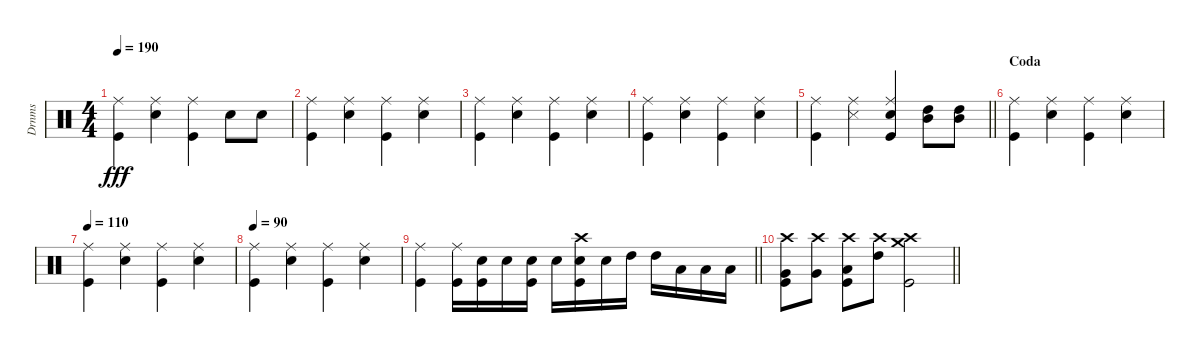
\track ("Drnms" "Drnms") {instrument percussion}
\staff {score}
\articulation defaults
\ts (4 4)
\tempo 190
\clef neutral
\ks c
("Kick (hit)" "Ride (middle)").4{dy fff} ("Snare (hit) 2" "Ride (middle)").4 ("Kick (hit)" "Ride (middle)").4 "Snare (hit) 2".8 "Snare (hit) 2".8 |
("Kick (hit)" "Ride (middle)").4 ("Snare (hit) 2" "Ride (middle)").4 ("Kick (hit)" "Ride (middle)").4 ("Snare (hit) 2" "Ride (middle)").4 |
("Kick (hit)" "Ride (middle)").4 ("Snare (hit) 2" "Ride (middle)").4 ("Kick (hit)" "Ride (middle)").4 ("Snare (hit) 2" "Ride (middle)").4 |
("Kick (hit)" "Ride (middle)").4 ("Snare (hit) 2" "Ride (middle)").4 ("Kick (hit)" "Ride (middle)").4 ("Snare (hit) 2" "Ride (middle)").4 |
\barLineRight lightlight
("Kick (hit)" "Ride (middle)").4 ("Snare (side stick) 3" "Ride (middle)").4 ("Kick (hit)" "Snare (hit) 2" "Ride (middle)").4 ("Mid Tom (hit)" "High Tom (hit)").8 ("Mid Tom (hit)" "High Tom (hit)").8 |
\section ("" "Coda")
("Kick (hit)" "Ride (middle)").4 ("Snare (hit) 2" "Ride (middle)").4 ("Kick (hit)" "Ride (middle)").4 ("Snare (hit) 2" "Ride (middle)").4 |
\tempo 110
("Kick (hit)" "Ride (middle)").4 ("Snare (hit) 2" "Ride (middle)").4 ("Kick (hit)" "Ride (middle)").4 ("Snare (hit) 2" "Ride (middle)").4 |
\tempo 90
("Kick (hit)" "Ride (middle)").4 ("Snare (hit) 2" "Ride (middle)").4 ("Kick (hit)" "Ride (middle)").4 ("Snare (hit) 2" "Ride (middle)").4 |
\barLineRight lightlight
("Kick (hit)" "Ride (middle)").4 ("Kick (hit)" "Ride (middle)").16 ("Kick (hit)" "Snare (hit) 2").16 "Snare (hit) 2".16 ("Kick (hit)" "Snare (hit) 2").16 "Snare (hit) 2".16 ("Kick (hit)" "Snare (hit) 2" "Crash high (hit)").16 "Snare (hit) 2".16 "High Tom (hit)".16 "High Tom (hit)".16 "Low Tom (hit)".16 "Low Tom (hit)".16 "Low Tom (hit)".16 |
\barLineRight lightlight
("Kick (hit)" "Very Low Tom (hit)" "Crash high (hit)").8 ("Very Low Tom (hit)" "Crash high (hit)").8 ("Kick (hit)" "Low Tom (hit)" "Crash high (hit)").8 ("High Tom (hit)" "Crash high (hit)").8 ("Kick (hit)" "Crash high (hit)" "Crash medium (hit)").2
